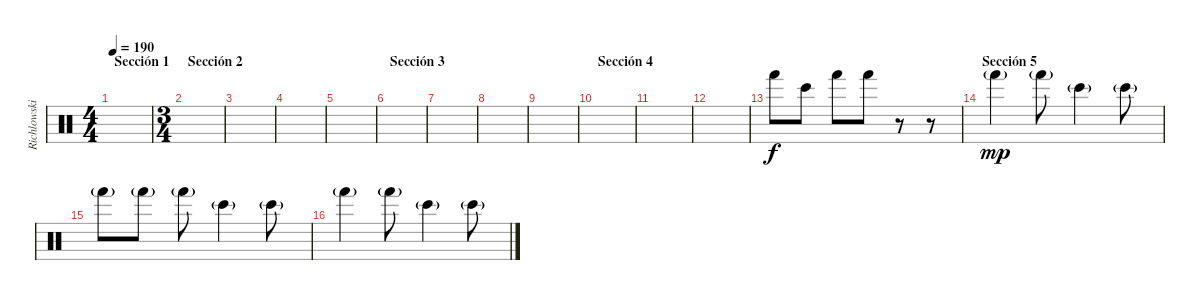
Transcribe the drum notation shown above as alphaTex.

\track ("Richlowski y Dj Raff" "Richlowski") {instrument percussion}
\staff {score}
\articulation defaults
\ts (4 4)
\section ("" "Sección 1")
\tempo 190
\tempo 70
\tempo 190
\clef neutral
\ks c
|
\ts (3 4)
\section ("" "Sección 2")
|
|
|
|
\section ("" "Sección 3")
|
|
|
|
\section ("" "Sección 4")
|
|
|
"Hand (hit)".8 "Bongo High (hit)".8 "Hand (hit)".8 "Hand (hit)".8 r.8 r.8 |
\section ("" "Sección 5")
"Hand (hit)"{g}.4{dy mp} "Hand (hit)"{g}.8 "Bongo High (hit)"{g}.4 "Bongo High (hit)"{g}.8 |
"Hand (hit)"{g}.8 "Hand (hit)"{g}.8 "Hand (hit)"{g}.8 "Bongo High (hit)"{g}.4 "Bongo High (hit)"{g}.8 |
"Hand (hit)"{g}.4 "Hand (hit)"{g}.8 "Bongo High (hit)"{g}.4 "Bongo High (hit)"{g}.8
